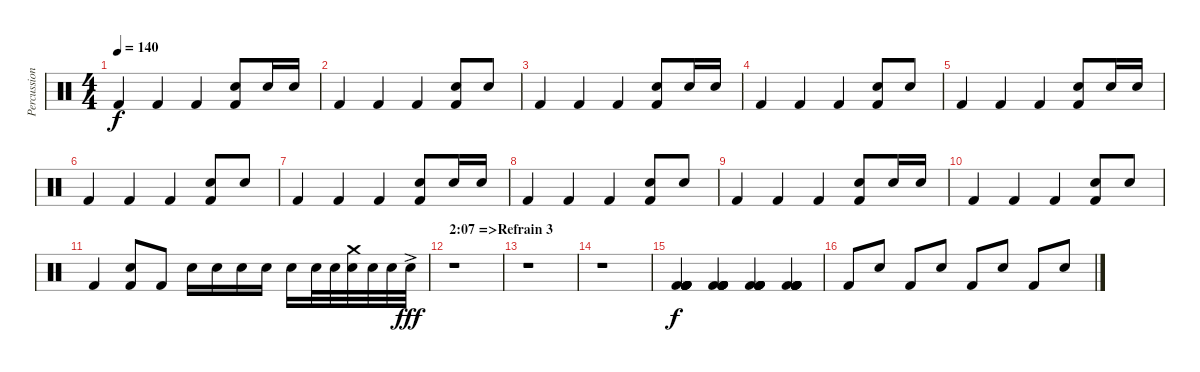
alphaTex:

\track ("Percussions" "Percussion") {instrument percussion}
\staff {score}
\articulation defaults
\ts (4 4)
\tempo 140
\clef neutral
\ks c "Kick (hit) 2".4{dy f} "Kick (hit) 2".4 "Kick (hit) 2".4
("Electric Snare (hit)" "Kick (hit) 2").8 "Electric Snare (hit)".16 "Electric Snare (hit)".16 |
"Kick (hit) 2".4 "Kick (hit) 2".4 "Kick (hit) 2".4 ("Electric Snare (hit)" "Kick (hit) 2").8 "Electric Snare (hit)".8 |
"Kick (hit) 2".4 "Kick (hit) 2".4 "Kick (hit) 2".4 ("Electric Snare (hit)" "Kick (hit) 2").8 "Electric Snare (hit)".16 "Electric Snare (hit)".16 |
"Kick (hit) 2".4 "Kick (hit) 2".4 "Kick (hit) 2".4 ("Electric Snare (hit)" "Kick (hit) 2").8 "Electric Snare (hit)".8 |
"Kick (hit) 2".4 "Kick (hit) 2".4 "Kick (hit) 2".4 ("Electric Snare (hit)" "Kick (hit) 2").8 "Electric Snare (hit)".16 "Electric Snare (hit)".16 |
"Kick (hit) 2".4 "Kick (hit) 2".4 "Kick (hit) 2".4 ("Electric Snare (hit)" "Kick (hit) 2").8 "Electric Snare (hit)".8 |
"Kick (hit) 2".4 "Kick (hit) 2".4 "Kick (hit) 2".4 ("Electric Snare (hit)" "Kick (hit) 2").8 "Electric Snare (hit)".16 "Electric Snare (hit)".16 |
"Kick (hit) 2".4 "Kick (hit) 2".4 "Kick (hit) 2".4 ("Electric Snare (hit)" "Kick (hit) 2").8 "Electric Snare (hit)".8 |
"Kick (hit) 2".4 "Kick (hit) 2".4 "Kick (hit) 2".4 ("Electric Snare (hit)" "Kick (hit) 2").8 "Electric Snare (hit)".16 "Electric Snare (hit)".16 |
"Kick (hit) 2".4 "Kick (hit) 2".4 "Kick (hit) 2".4 ("Electric Snare (hit)" "Kick (hit) 2").8 "Electric Snare (hit)".8 |
"Kick (hit) 2".4 ("Electric Snare (hit)" "Kick (hit) 2").8 "Kick (hit) 2".8 "Snare (hit) 2".16 "Snare (hit) 2".16 "Snare (hit) 2".16 "Snare (hit) 2".16 "Snare (hit) 2".16 "Snare (hit) 2".32 "Snare (hit) 2".32 ("Crash medium (hit)" "Snare (hit) 2").32 "Snare (hit) 2".32 "Snare (hit) 2".32 "Snare (hit) 2"{ac}.32{dy fff} |
\section ("" "2:07 =>Refrain 3")
r.1 |
r.1 |
r.1 |
("Kick (hit) 2" "Kick (hit) 2" "Kick (hit) 2" "Kick (hit) 2" "Kick (hit) 2" "Kick (hit) 2").4{dy f} ("Kick (hit) 2" "Kick (hit) 2" "Kick (hit) 2" "Kick (hit) 2" "Kick (hit) 2" "Kick (hit) 2").4 ("Kick (hit) 2" "Kick (hit) 2" "Kick (hit) 2" "Kick (hit) 2" "Kick (hit) 2" "Kick (hit) 2").4 ("Kick (hit) 2" "Kick (hit) 2" "Kick (hit) 2" "Kick (hit) 2" "Kick (hit) 2" "Kick (hit) 2").4 |
"Kick (hit) 2".8 "Snare (hit) 2".8 "Kick (hit) 2".8 "Snare (hit) 2".8 "Kick (hit) 2".8 "Snare (hit) 2".8 "Kick (hit) 2".8 "Snare (hit) 2".8
